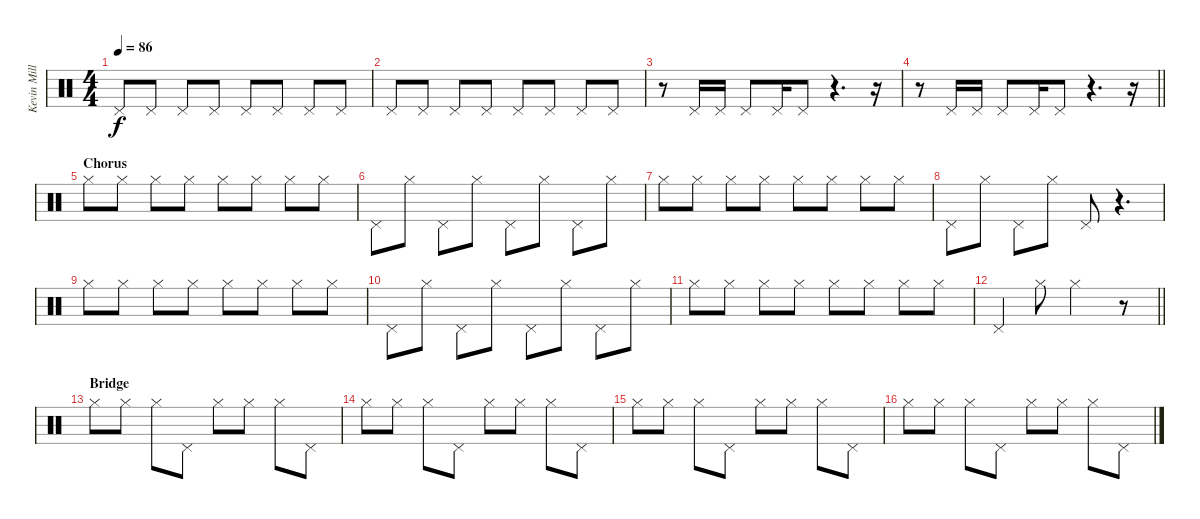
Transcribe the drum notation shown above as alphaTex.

\track ("Kevin Miller (Drums)" "Kevin Mill") {instrument percussion}
\staff {score}
\articulation defaults
\ts (4 4)
\tempo 86
\clef neutral
\ks c "Pedal Hi-Hat (hit)".8{dy f} "Pedal Hi-Hat (hit)".8 "Pedal Hi-Hat (hit)".8 "Pedal Hi-Hat (hit)".8 "Pedal Hi-Hat (hit)".8 "Pedal Hi-Hat (hit)".8 "Pedal Hi-Hat (hit)".8 "Pedal Hi-Hat (hit)".8
|
"Pedal Hi-Hat (hit)".8 "Pedal Hi-Hat (hit)".8 "Pedal Hi-Hat (hit)".8 "Pedal Hi-Hat (hit)".8 "Pedal Hi-Hat (hit)".8 "Pedal Hi-Hat (hit)".8 "Pedal Hi-Hat (hit)".8 "Pedal Hi-Hat (hit)".8 |
r.8 "Pedal Hi-Hat (hit)".16 "Pedal Hi-Hat (hit)".16 "Pedal Hi-Hat (hit)".8 "Pedal Hi-Hat (hit)".16 "Pedal Hi-Hat (hit)".8 r.4{d} r.16 |
\barLineRight lightlight
r.8 "Pedal Hi-Hat (hit)".16 "Pedal Hi-Hat (hit)".16 "Pedal Hi-Hat (hit)".8 "Pedal Hi-Hat (hit)".16 "Pedal Hi-Hat (hit)".8 r.4{d} r.16 |
\section ("" "Chorus")
"Hi-Hat (closed)".8 "Hi-Hat (closed)".8 "Hi-Hat (closed)".8 "Hi-Hat (closed)".8 "Hi-Hat (closed)".8 "Hi-Hat (closed)".8 "Hi-Hat (closed)".8 "Hi-Hat (closed)".8 |
"Pedal Hi-Hat (hit)".8 "Hi-Hat (closed)".8 "Pedal Hi-Hat (hit)".8 "Hi-Hat (closed)".8 "Pedal Hi-Hat (hit)".8 "Hi-Hat (closed)".8 "Pedal Hi-Hat (hit)".8 "Hi-Hat (closed)".8 |
"Hi-Hat (closed)".8 "Hi-Hat (closed)".8 "Hi-Hat (closed)".8 "Hi-Hat (closed)".8 "Hi-Hat (closed)".8 "Hi-Hat (closed)".8 "Hi-Hat (closed)".8 "Hi-Hat (closed)".8 |
"Pedal Hi-Hat (hit)".8 "Hi-Hat (closed)".8 "Pedal Hi-Hat (hit)".8 "Hi-Hat (closed)".8 "Pedal Hi-Hat (hit)".8 r.4{d} |
"Hi-Hat (closed)".8 "Hi-Hat (closed)".8 "Hi-Hat (closed)".8 "Hi-Hat (closed)".8 "Hi-Hat (closed)".8 "Hi-Hat (closed)".8 "Hi-Hat (closed)".8 "Hi-Hat (closed)".8 |
"Pedal Hi-Hat (hit)".8 "Hi-Hat (closed)".8 "Pedal Hi-Hat (hit)".8 "Hi-Hat (closed)".8 "Pedal Hi-Hat (hit)".8 "Hi-Hat (closed)".8 "Pedal Hi-Hat (hit)".8 "Hi-Hat (closed)".8 |
"Hi-Hat (closed)".8 "Hi-Hat (closed)".8 "Hi-Hat (closed)".8 "Hi-Hat (closed)".8 "Hi-Hat (closed)".8 "Hi-Hat (closed)".8 "Hi-Hat (closed)".8 "Hi-Hat (closed)".8 |
\barLineRight lightlight "Pedal Hi-Hat (hit)".4 "Hi-Hat (closed)".8 "Hi-Hat (closed)".2
r.8 |
\section ("" "Bridge")
"Hi-Hat (closed)".8 "Hi-Hat (closed)".8 "Hi-Hat (closed)".8 "Pedal Hi-Hat (hit)".8 "Hi-Hat (closed)".8 "Hi-Hat (closed)".8 "Hi-Hat (closed)".8 "Pedal Hi-Hat (hit)".8 |
"Hi-Hat (closed)".8 "Hi-Hat (closed)".8 "Hi-Hat (closed)".8 "Pedal Hi-Hat (hit)".8 "Hi-Hat (closed)".8 "Hi-Hat (closed)".8 "Hi-Hat (closed)".8 "Pedal Hi-Hat (hit)".8 |
"Hi-Hat (closed)".8 "Hi-Hat (closed)".8 "Hi-Hat (closed)".8 "Pedal Hi-Hat (hit)".8 "Hi-Hat (closed)".8 "Hi-Hat (closed)".8 "Hi-Hat (closed)".8 "Pedal Hi-Hat (hit)".8 |
"Hi-Hat (closed)".8 "Hi-Hat (closed)".8 "Hi-Hat (closed)".8 "Pedal Hi-Hat (hit)".8 "Hi-Hat (closed)".8 "Hi-Hat (closed)".8 "Hi-Hat (closed)".8 "Pedal Hi-Hat (hit)".8
